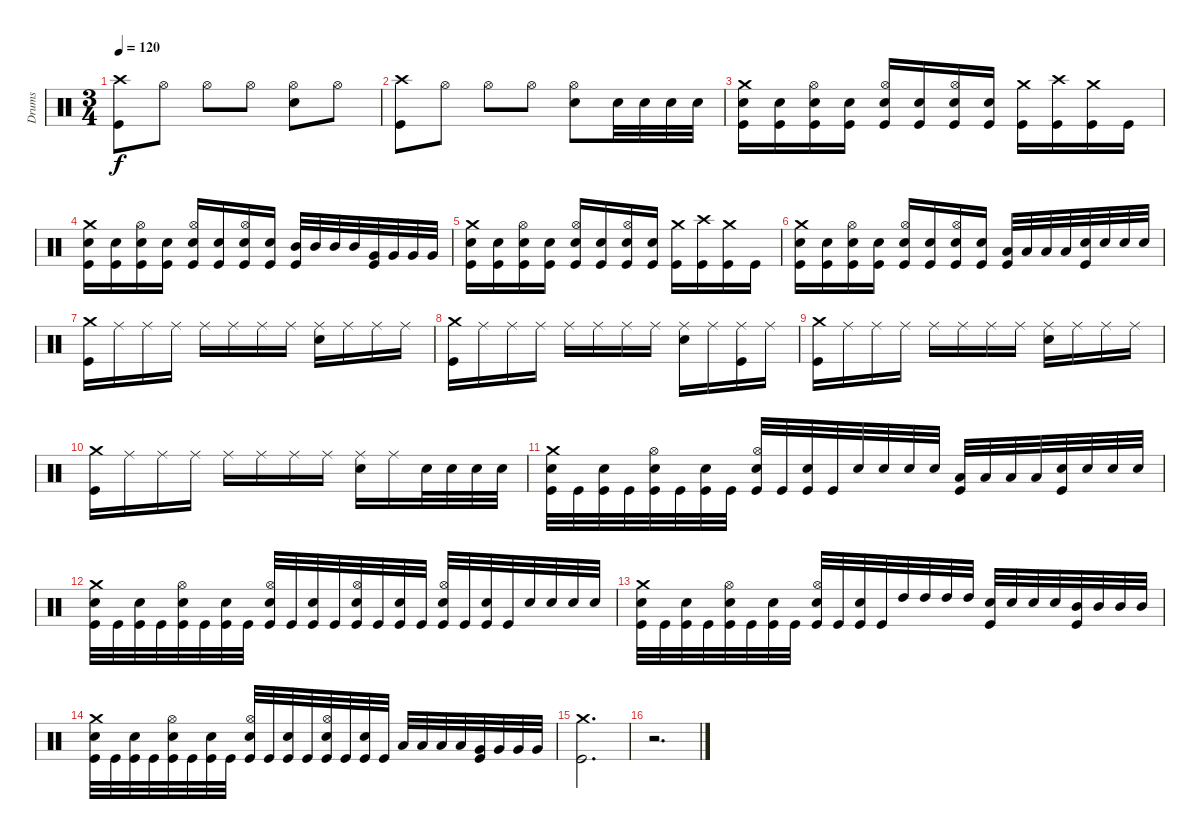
\track ("Drums" "Drums") {instrument percussion}
\staff {score}
\articulation defaults
\ts (3 4)
\tempo 120
\clef neutral
\ks c
("Kick (hit)" "Crash high (hit)").8{dy f} "Hi-Hat (open)".8 "Hi-Hat (open)".8 "Hi-Hat (open)".8 ("Hi-Hat (open)" "Snare (hit) 2").8 "Hi-Hat (open)".8 |
("Kick (hit)" "Crash high (hit)").8 "Hi-Hat (open)".8 "Hi-Hat (open)".8 "Hi-Hat (open)".8 ("Hi-Hat (open)" "Snare (hit) 2").8 "Snare (hit) 2".32 "Snare (hit) 2".32 "Snare (hit) 2".32 "Snare (hit) 2".32 |
("Kick (hit)" "Snare (hit) 2" "Crash medium (hit)").16 ("Kick (hit)" "Snare (hit) 2").16 ("Kick (hit)" "Snare (hit) 2" "Hi-Hat (open)").16 ("Kick (hit)" "Snare (hit) 2").16 ("Kick (hit)" "Snare (hit) 2" "Hi-Hat (open)").16 ("Kick (hit)" "Snare (hit) 2").16 ("Kick (hit)" "Snare (hit) 2" "Hi-Hat (open)").16 ("Kick (hit)" "Snare (hit) 2").16 ("Kick (hit)" "Crash medium (hit)").16 ("Kick (hit)" "Crash high (hit)").16 ("Kick (hit)" "Crash medium (hit)").16 "Kick (hit)".16 |
("Kick (hit)" "Snare (hit) 2" "Crash medium (hit)").16 ("Kick (hit)" "Snare (hit) 2").16 ("Kick (hit)" "Snare (hit) 2" "Hi-Hat (open)").16 ("Kick (hit)" "Snare (hit) 2").16 ("Kick (hit)" "Snare (hit) 2" "Hi-Hat (open)").16 ("Kick (hit)" "Snare (hit) 2").16 ("Kick (hit)" "Snare (hit) 2" "Hi-Hat (open)").16 ("Kick (hit)" "Snare (hit) 2").16 ("Mid Tom (hit)" "Kick (hit)").32 "Mid Tom (hit)".32 "Mid Tom (hit)".32 "Mid Tom (hit)".32 ("Very Low Tom (hit)" "Kick (hit)").32 "Very Low Tom (hit)".32 "Very Low Tom (hit)".32 "Very Low Tom (hit)".32 |
("Kick (hit)" "Snare (hit) 2" "Crash medium (hit)").16 ("Kick (hit)" "Snare (hit) 2").16 ("Kick (hit)" "Snare (hit) 2" "Hi-Hat (open)").16 ("Kick (hit)" "Snare (hit) 2").16 ("Kick (hit)" "Snare (hit) 2" "Hi-Hat (open)").16 ("Kick (hit)" "Snare (hit) 2").16 ("Kick (hit)" "Snare (hit) 2" "Hi-Hat (open)").16 ("Kick (hit)" "Snare (hit) 2").16 ("Kick (hit)" "Crash medium (hit)").16 ("Kick (hit)" "Crash high (hit)").16 ("Kick (hit)" "Crash medium (hit)").16 "Kick (hit)".16 |
("Kick (hit)" "Snare (hit) 2" "Crash medium (hit)").16 ("Kick (hit)" "Snare (hit) 2").16 ("Kick (hit)" "Snare (hit) 2" "Hi-Hat (open)").16 ("Kick (hit)" "Snare (hit) 2").16 ("Kick (hit)" "Snare (hit) 2" "Hi-Hat (open)").16 ("Kick (hit)" "Snare (hit) 2").16 ("Kick (hit)" "Snare (hit) 2" "Hi-Hat (open)").16 ("Kick (hit)" "Snare (hit) 2").16 ("Low Tom (hit)" "Kick (hit)").32 "Low Tom (hit)".32 "Low Tom (hit)".32 "Low Tom (hit)".32 ("Snare (hit) 2" "Kick (hit)").32 "Snare (hit) 2".32 "Snare (hit) 2".32 "Snare (hit) 2".32 |
("Kick (hit)" "Crash medium (hit)").16 "Ride (middle)".16 "Ride (middle)".16 "Ride (middle)".16 "Ride (middle)".16 "Ride (middle)".16 "Ride (middle)".16 "Ride (middle)".16 ("Ride (middle)" "Snare (hit) 2").16 "Ride (middle)".16 "Ride (middle)".16 "Ride (middle)".16 |
("Kick (hit)" "Crash medium (hit)").16 "Ride (middle)".16 "Ride (middle)".16 "Ride (middle)".16 "Ride (middle)".16 "Ride (middle)".16 "Ride (middle)".16 "Ride (middle)".16 ("Ride (middle)" "Snare (hit) 2").16 "Ride (middle)".16 ("Ride (middle)" "Kick (hit)").16 "Ride (middle)".16 |
("Kick (hit)" "Crash medium (hit)").16 "Ride (middle)".16 "Ride (middle)".16 "Ride (middle)".16 "Ride (middle)".16 "Ride (middle)".16 "Ride (middle)".16 "Ride (middle)".16 ("Ride (middle)" "Snare (hit) 2").16 "Ride (middle)".16 "Ride (middle)".16 "Ride (middle)".16 |
("Kick (hit)" "Crash medium (hit)").16 "Ride (middle)".16 "Ride (middle)".16 "Ride (middle)".16 "Ride (middle)".16 "Ride (middle)".16 "Ride (middle)".16 "Ride (middle)".16 ("Ride (middle)" "Snare (hit) 2").16 "Ride (middle)".16 "Snare (hit) 2".32 "Snare (hit) 2".32 "Snare (hit) 2".32 "Snare (hit) 2".32 |
("Kick (hit)" "Snare (hit) 2" "Crash medium (hit)").32 "Kick (hit)".32 ("Kick (hit)" "Snare (hit) 2").32 "Kick (hit)".32 ("Kick (hit)" "Snare (hit) 2" "Hi-Hat (open)").32 "Kick (hit)".32 ("Kick (hit)" "Snare (hit) 2").32 "Kick (hit)".32 ("Kick (hit)" "Snare (hit) 2" "Hi-Hat (open)").32 "Kick (hit)".32 ("Kick (hit)" "Snare (hit) 2").32 "Kick (hit)".32 "Snare (hit) 2".32 "Snare (hit) 2".32 "Snare (hit) 2".32 "Snare (hit) 2".32 ("Kick (hit)" "Low Tom (hit)").32 "Low Tom (hit)".32 "Low Tom (hit)".32 "Low Tom (hit)".32 ("Snare (hit) 2" "Kick (hit)").32 "Snare (hit) 2".32 "Snare (hit) 2".32 "Snare (hit) 2".32 |
("Kick (hit)" "Snare (hit) 2" "Crash medium (hit)").32 "Kick (hit)".32 ("Kick (hit)" "Snare (hit) 2").32 "Kick (hit)".32 ("Kick (hit)" "Snare (hit) 2" "Hi-Hat (open)").32 "Kick (hit)".32 ("Kick (hit)" "Snare (hit) 2").32 "Kick (hit)".32 ("Kick (hit)" "Snare (hit) 2" "Hi-Hat (open)").32 "Kick (hit)".32 ("Kick (hit)" "Snare (hit) 2").32 "Kick (hit)".32 ("Kick (hit)" "Snare (hit) 2" "Hi-Hat (open)").32 "Kick (hit)".32 ("Kick (hit)" "Snare (hit) 2").32 "Kick (hit)".32 ("Kick (hit)" "Snare (hit) 2" "Hi-Hat (open)").32 "Kick (hit)".32 ("Kick (hit)" "Snare (hit) 2").32 "Kick (hit)".32 "Snare (hit) 2".32 "Snare (hit) 2".32 "Snare (hit) 2".32 "Snare (hit) 2".32 |
("Kick (hit)" "Snare (hit) 2" "Crash medium (hit)").32 "Kick (hit)".32 ("Kick (hit)" "Snare (hit) 2").32 "Kick (hit)".32 ("Kick (hit)" "Snare (hit) 2" "Hi-Hat (open)").32 "Kick (hit)".32 ("Kick (hit)" "Snare (hit) 2").32 "Kick (hit)".32 ("Kick (hit)" "Snare (hit) 2" "Hi-Hat (open)").32 "Kick (hit)".32 ("Kick (hit)" "Snare (hit) 2").32 "Kick (hit)".32 "High Tom (hit)".32 "High Tom (hit)".32 "High Tom (hit)".32 "High Tom (hit)".32 ("Kick (hit)" "Snare (hit) 2").32 "Snare (hit) 2".32 "Snare (hit) 2".32 "Snare (hit) 2".32 ("Kick (hit)" "Mid Tom (hit)").32 "Mid Tom (hit)".32 "Mid Tom (hit)".32 "Mid Tom (hit)".32 |
("Kick (hit)" "Snare (hit) 2" "Crash medium (hit)").32 "Kick (hit)".32 ("Kick (hit)" "Snare (hit) 2").32 "Kick (hit)".32 ("Kick (hit)" "Snare (hit) 2" "Hi-Hat (open)").32 "Kick (hit)".32 ("Kick (hit)" "Snare (hit) 2").32 "Kick (hit)".32 ("Kick (hit)" "Snare (hit) 2" "Hi-Hat (open)").32 "Kick (hit)".32 ("Kick (hit)" "Snare (hit) 2").32 "Kick (hit)".32 ("Kick (hit)" "Snare (hit) 2" "Hi-Hat (open)").32 "Kick (hit)".32 ("Kick (hit)" "Snare (hit) 2").32 "Kick (hit)".32 "Low Tom (hit)".32 "Low Tom (hit)".32 "Low Tom (hit)".32 "Low Tom (hit)".32 ("Kick (hit)" "Very Low Tom (hit)").32 "Very Low Tom (hit)".32 "Very Low Tom (hit)".32 "Very Low Tom (hit)".32 |
("Crash medium (hit)" "Kick (hit)").2{d} |
r.2{d}
